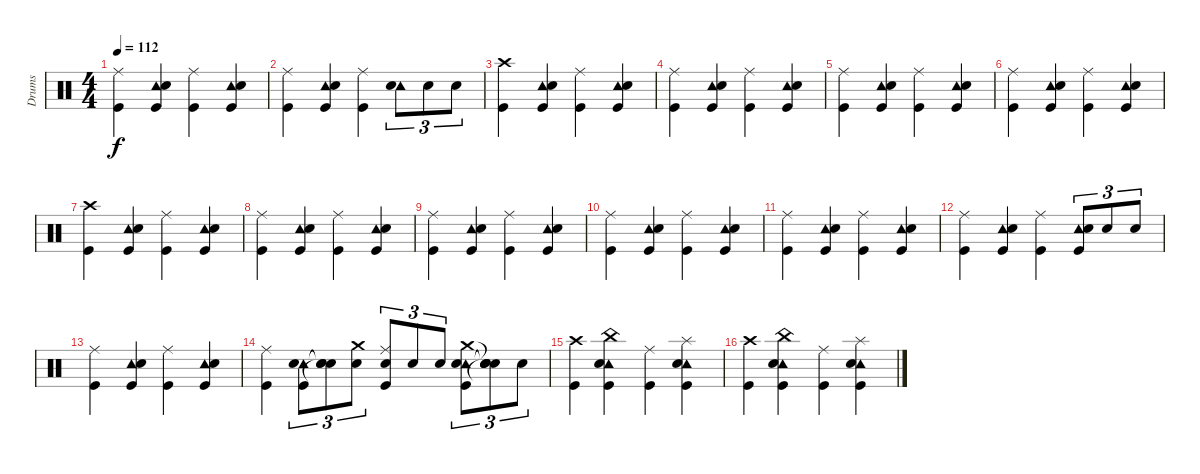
\track ("Drums" "Drums") {instrument percussion}
\staff {score}
\articulation defaults
\ts (4 4)
\tempo 112
\clef neutral
\ks c
("Kick (hit)" "Ride (middle)").4{dy f} ("Tambourine (hit)" "Snare (hit) 2" "Kick (hit)").4 ("Kick (hit)" "Ride (middle)").4 ("Tambourine (hit)" "Snare (hit) 2" "Kick (hit)").4 |
("Kick (hit)" "Ride (middle)").4 ("Tambourine (hit)" "Snare (hit) 2" "Kick (hit)").4 ("Kick (hit)" "Ride (middle)").4 ("Tambourine (hit)" "Snare (hit) 2").8{tu (3 2)} "Snare (hit) 2".8{tu (3 2)} "Snare (hit) 2".8{tu (3 2)} |
("Kick (hit)" "Crash high (hit)").4 ("Tambourine (hit)" "Snare (hit) 2" "Kick (hit)").4 ("Kick (hit)" "Ride (middle)").4 ("Tambourine (hit)" "Snare (hit) 2" "Kick (hit)").4 |
("Kick (hit)" "Ride (middle)").4 ("Tambourine (hit)" "Snare (hit) 2" "Kick (hit)").4 ("Kick (hit)" "Ride (middle)").4 ("Tambourine (hit)" "Snare (hit) 2" "Kick (hit)").4 |
("Kick (hit)" "Ride (middle)").4 ("Tambourine (hit)" "Snare (hit) 2" "Kick (hit)").4 ("Kick (hit)" "Ride (middle)").4 ("Tambourine (hit)" "Snare (hit) 2" "Kick (hit)").4 |
("Kick (hit)" "Ride (middle)").4 ("Tambourine (hit)" "Snare (hit) 2" "Kick (hit)").4 ("Kick (hit)" "Ride (middle)").4 ("Tambourine (hit)" "Snare (hit) 2" "Kick (hit)").4 |
("Kick (hit)" "Crash high (hit)").4 ("Tambourine (hit)" "Snare (hit) 2" "Kick (hit)").4 ("Kick (hit)" "Ride (middle)").4 ("Tambourine (hit)" "Snare (hit) 2" "Kick (hit)").4 |
("Kick (hit)" "Ride (middle)").4 ("Tambourine (hit)" "Snare (hit) 2" "Kick (hit)").4 ("Kick (hit)" "Ride (middle)").4 ("Tambourine (hit)" "Snare (hit) 2" "Kick (hit)").4 |
("Kick (hit)" "Ride (middle)").4 ("Tambourine (hit)" "Snare (hit) 2" "Kick (hit)").4 ("Kick (hit)" "Ride (middle)").4 ("Tambourine (hit)" "Snare (hit) 2" "Kick (hit)").4 |
("Kick (hit)" "Ride (middle)").4 ("Tambourine (hit)" "Snare (hit) 2" "Kick (hit)").4 ("Kick (hit)" "Ride (middle)").4 ("Tambourine (hit)" "Snare (hit) 2" "Kick (hit)").4 |
("Kick (hit)" "Ride (middle)").4 ("Tambourine (hit)" "Snare (hit) 2" "Kick (hit)").4 ("Kick (hit)" "Ride (middle)").4 ("Tambourine (hit)" "Snare (hit) 2" "Kick (hit)").4 |
("Kick (hit)" "Ride (middle)").4 ("Tambourine (hit)" "Snare (hit) 2" "Kick (hit)").4 ("Kick (hit)" "Ride (middle)").4 ("Tambourine (hit)" "Snare (hit) 2" "Kick (hit)").8{tu (3 2)} "Snare (hit) 2".8{tu (3 2)} "Snare (hit) 2".8{tu (3 2)} |
("Kick (hit)" "Ride (middle)").4 ("Tambourine (hit)" "Snare (hit) 2" "Kick (hit)").4 ("Kick (hit)" "Ride (middle)").4 ("Tambourine (hit)" "Snare (hit) 2" "Kick (hit)").4 |
("Kick (hit)" "Ride (middle)").4 ("Tambourine (hit)" "Snare (hit) 2" "Kick (hit)").8{tu (3 2)} ("Snare (hit)"{t} "Snare (hit)"{t} "Snare (hit)"{t}).8{tu (3 2)} ("Crash medium (hit)" "Snare (hit) 2").8{tu (3 2)} ("Snare (hit) 2" "Kick (hit)" "Ride (middle)").8{tu (3 2)} "Snare (hit) 2".8{tu (3 2)} "Snare (hit) 2".8{tu (3 2)} ("Crash medium (hit)" "Tambourine (hit)" "Snare (hit) 2" "Kick (hit)").8{tu (3 2)} ("Snare (hit)"{t} "Snare (hit)"{t} "Snare (hit)"{t} "Snare (hit)"{t}).8{tu (3 2)} "Snare (hit) 2".8{tu (3 2)} |
("Kick (hit)" "Crash high (hit)").4 ("China (hit)" "Tambourine (hit)" "Snare (hit) 2" "Kick (hit)").4 ("Kick (hit)" "Ride (middle)").4 ("Splash (hit)" "Tambourine (hit)" "Snare (hit) 2" "Kick (hit)").4 |
("Kick (hit)" "Crash high (hit)").4 ("China (hit)" "Tambourine (hit)" "Snare (hit) 2" "Kick (hit)").4 ("Kick (hit)" "Ride (middle)").4 ("Splash (hit)" "Tambourine (hit)" "Snare (hit) 2" "Kick (hit)").4
